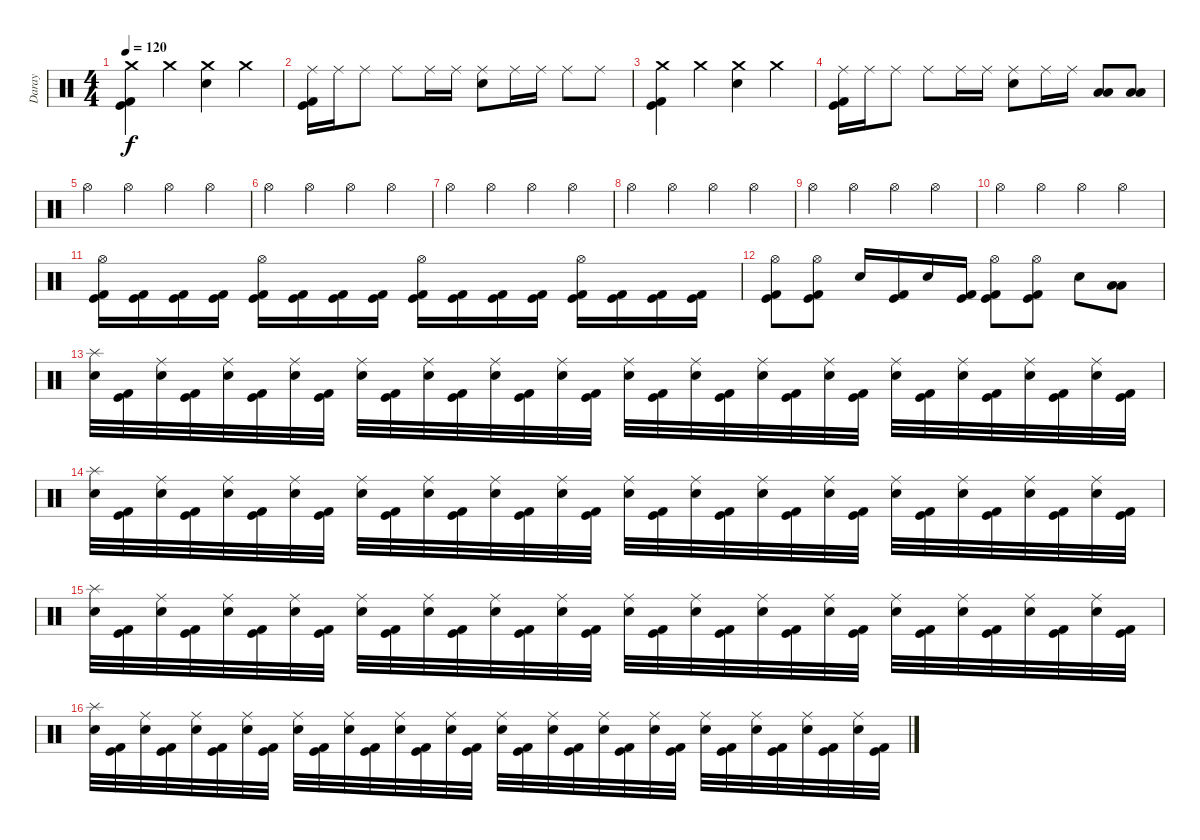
\track ("Daray" "Daray") {instrument percussion}
\staff {score}
\articulation defaults
\ts (4 4)
\tempo 120
\clef neutral
\ks c
("Crash medium (hit)" "Kick (hit) 2" "Kick (hit)").4{dy f} "Crash medium (hit)".4 ("Crash medium (hit)" "Snare (hit) 2").4 "Crash medium (hit)".4 |
("Ride (middle)" "Kick (hit) 2" "Kick (hit)").16 "Ride (middle)".16 "Ride (middle)".8 "Ride (middle)".8 "Ride (middle)".16 "Ride (middle)".16 ("Ride (middle)" "Snare (hit) 2").8 "Ride (middle)".16 "Ride (middle)".16 "Ride (middle)".8 "Ride (middle)".8 |
("Crash medium (hit)" "Kick (hit) 2" "Kick (hit)").4 "Crash medium (hit)".4 ("Crash medium (hit)" "Snare (hit) 2").4 "Crash medium (hit)".4 |
("Ride (middle)" "Kick (hit) 2" "Kick (hit)").16 "Ride (middle)".16 "Ride (middle)".8 "Ride (middle)".8 "Ride (middle)".16 "Ride (middle)".16 ("Ride (middle)" "Snare (hit) 2").8 "Ride (middle)".16 "Ride (middle)".16 ("Low Floor Tom (hit)" "Low Tom (hit)").8 ("Low Floor Tom (hit)" "Low Tom (hit)").8 |
"Hi-Hat (open)".4 "Hi-Hat (open)".4 "Hi-Hat (open)".4 "Hi-Hat (open)".4 |
"Hi-Hat (open)".4 "Hi-Hat (open)".4 "Hi-Hat (open)".4 "Hi-Hat (open)".4 |
"Hi-Hat (open)".4 "Hi-Hat (open)".4 "Hi-Hat (open)".4 "Hi-Hat (open)".4 |
"Hi-Hat (open)".4 "Hi-Hat (open)".4 "Hi-Hat (open)".4 "Hi-Hat (open)".4 |
"Hi-Hat (open)".4 "Hi-Hat (open)".4 "Hi-Hat (open)".4 "Hi-Hat (open)".4 |
"Hi-Hat (open)".4 "Hi-Hat (open)".4 "Hi-Hat (open)".4 "Hi-Hat (open)".4 |
("Hi-Hat (open)" "Kick (hit) 2" "Kick (hit)").16 ("Kick (hit) 2" "Kick (hit)").16 ("Kick (hit) 2" "Kick (hit)").16 ("Kick (hit) 2" "Kick (hit)").16 ("Hi-Hat (open)" "Kick (hit) 2" "Kick (hit)").16 ("Kick (hit) 2" "Kick (hit)").16 ("Kick (hit) 2" "Kick (hit)").16 ("Kick (hit) 2" "Kick (hit)").16 ("Hi-Hat (open)" "Kick (hit) 2" "Kick (hit)").16 ("Kick (hit) 2" "Kick (hit)").16 ("Kick (hit) 2" "Kick (hit)").16 ("Kick (hit) 2" "Kick (hit)").16 ("Hi-Hat (open)" "Kick (hit) 2" "Kick (hit)").16 ("Kick (hit) 2" "Kick (hit)").16 ("Kick (hit) 2" "Kick (hit)").16 ("Kick (hit) 2" "Kick (hit)").16 |
("Hi-Hat (open)" "Kick (hit) 2" "Kick (hit)").8 ("Hi-Hat (open)" "Kick (hit) 2" "Kick (hit)").8 "Snare (hit) 2".16 ("Kick (hit) 2" "Kick (hit)").16 "Snare (hit) 2".16 ("Kick (hit) 2" "Kick (hit)").16 ("Hi-Hat (open)" "Kick (hit) 2" "Kick (hit)").8 ("Hi-Hat (open)" "Kick (hit) 2" "Kick (hit)").8 "Snare (hit) 2".8 ("Low Tom (hit)" "Low Floor Tom (hit)").8 |
("Splash (hit)" "Snare (hit) 2").32 ("Kick (hit) 2" "Kick (hit)").32 ("Ride (middle)" "Snare (hit) 2").32 ("Kick (hit) 2" "Kick (hit)").32 ("Ride (middle)" "Snare (hit) 2").32 ("Kick (hit) 2" "Kick (hit)").32 ("Ride (middle)" "Snare (hit) 2").32 ("Kick (hit) 2" "Kick (hit)").32 ("Ride (middle)" "Snare (hit) 2").32 ("Kick (hit) 2" "Kick (hit)").32 ("Ride (middle)" "Snare (hit) 2").32 ("Kick (hit) 2" "Kick (hit)").32 ("Ride (middle)" "Snare (hit) 2").32 ("Kick (hit) 2" "Kick (hit)").32 ("Ride (middle)" "Snare (hit) 2").32 ("Kick (hit) 2" "Kick (hit)").32 ("Ride (middle)" "Snare (hit) 2").32 ("Kick (hit) 2" "Kick (hit)").32 ("Ride (middle)" "Snare (hit) 2").32 ("Kick (hit) 2" "Kick (hit)").32 ("Ride (middle)" "Snare (hit) 2").32 ("Kick (hit) 2" "Kick (hit)").32 ("Ride (middle)" "Snare (hit) 2").32 ("Kick (hit) 2" "Kick (hit)").32 ("Ride (middle)" "Snare (hit) 2").32 ("Kick (hit) 2" "Kick (hit)").32 ("Ride (middle)" "Snare (hit) 2").32 ("Kick (hit) 2" "Kick (hit)").32 ("Ride (middle)" "Snare (hit) 2").32 ("Kick (hit) 2" "Kick (hit)").32 ("Ride (middle)" "Snare (hit) 2").32 ("Kick (hit) 2" "Kick (hit)").32 |
("Splash (hit)" "Snare (hit) 2").32 ("Kick (hit) 2" "Kick (hit)").32 ("Ride (middle)" "Snare (hit) 2").32 ("Kick (hit) 2" "Kick (hit)").32 ("Ride (middle)" "Snare (hit) 2").32 ("Kick (hit) 2" "Kick (hit)").32 ("Ride (middle)" "Snare (hit) 2").32 ("Kick (hit) 2" "Kick (hit)").32 ("Ride (middle)" "Snare (hit) 2").32 ("Kick (hit) 2" "Kick (hit)").32 ("Ride (middle)" "Snare (hit) 2").32 ("Kick (hit) 2" "Kick (hit)").32 ("Ride (middle)" "Snare (hit) 2").32 ("Kick (hit) 2" "Kick (hit)").32 ("Ride (middle)" "Snare (hit) 2").32 ("Kick (hit) 2" "Kick (hit)").32 ("Ride (middle)" "Snare (hit) 2").32 ("Kick (hit) 2" "Kick (hit)").32 ("Ride (middle)" "Snare (hit) 2").32 ("Kick (hit) 2" "Kick (hit)").32 ("Ride (middle)" "Snare (hit) 2").32 ("Kick (hit) 2" "Kick (hit)").32 ("Ride (middle)" "Snare (hit) 2").32 ("Kick (hit) 2" "Kick (hit)").32 ("Ride (middle)" "Snare (hit) 2").32 ("Kick (hit) 2" "Kick (hit)").32 ("Ride (middle)" "Snare (hit) 2").32 ("Kick (hit) 2" "Kick (hit)").32 ("Ride (middle)" "Snare (hit) 2").32 ("Kick (hit) 2" "Kick (hit)").32 ("Ride (middle)" "Snare (hit) 2").32 ("Kick (hit) 2" "Kick (hit)").32 |
("Splash (hit)" "Snare (hit) 2").32 ("Kick (hit) 2" "Kick (hit)").32 ("Ride (middle)" "Snare (hit) 2").32 ("Kick (hit) 2" "Kick (hit)").32 ("Ride (middle)" "Snare (hit) 2").32 ("Kick (hit) 2" "Kick (hit)").32 ("Ride (middle)" "Snare (hit) 2").32 ("Kick (hit) 2" "Kick (hit)").32 ("Ride (middle)" "Snare (hit) 2").32 ("Kick (hit) 2" "Kick (hit)").32 ("Ride (middle)" "Snare (hit) 2").32 ("Kick (hit) 2" "Kick (hit)").32 ("Ride (middle)" "Snare (hit) 2").32 ("Kick (hit) 2" "Kick (hit)").32 ("Ride (middle)" "Snare (hit) 2").32 ("Kick (hit) 2" "Kick (hit)").32 ("Ride (middle)" "Snare (hit) 2").32 ("Kick (hit) 2" "Kick (hit)").32 ("Ride (middle)" "Snare (hit) 2").32 ("Kick (hit) 2" "Kick (hit)").32 ("Ride (middle)" "Snare (hit) 2").32 ("Kick (hit) 2" "Kick (hit)").32 ("Ride (middle)" "Snare (hit) 2").32 ("Kick (hit) 2" "Kick (hit)").32 ("Ride (middle)" "Snare (hit) 2").32 ("Kick (hit) 2" "Kick (hit)").32 ("Ride (middle)" "Snare (hit) 2").32 ("Kick (hit) 2" "Kick (hit)").32 ("Ride (middle)" "Snare (hit) 2").32 ("Kick (hit) 2" "Kick (hit)").32 ("Ride (middle)" "Snare (hit) 2").32 ("Kick (hit) 2" "Kick (hit)").32 |
("Splash (hit)" "Snare (hit) 2").32 ("Kick (hit) 2" "Kick (hit)").32 ("Ride (middle)" "Snare (hit) 2").32 ("Kick (hit) 2" "Kick (hit)").32 ("Ride (middle)" "Snare (hit) 2").32 ("Kick (hit) 2" "Kick (hit)").32 ("Ride (middle)" "Snare (hit) 2").32 ("Kick (hit) 2" "Kick (hit)").32 ("Ride (middle)" "Snare (hit) 2").32 ("Kick (hit) 2" "Kick (hit)").32 ("Ride (middle)" "Snare (hit) 2").32 ("Kick (hit) 2" "Kick (hit)").32 ("Ride (middle)" "Snare (hit) 2").32 ("Kick (hit) 2" "Kick (hit)").32 ("Ride (middle)" "Snare (hit) 2").32 ("Kick (hit) 2" "Kick (hit)").32 ("Ride (middle)" "Snare (hit) 2").32 ("Kick (hit) 2" "Kick (hit)").32 ("Ride (middle)" "Snare (hit) 2").32 ("Kick (hit) 2" "Kick (hit)").32 ("Ride (middle)" "Snare (hit) 2").32 ("Kick (hit) 2" "Kick (hit)").32 ("Ride (middle)" "Snare (hit) 2").32 ("Kick (hit) 2" "Kick (hit)").32 ("Ride (middle)" "Snare (hit) 2").32 ("Kick (hit) 2" "Kick (hit)").32 ("Ride (middle)" "Snare (hit) 2").32 ("Kick (hit) 2" "Kick (hit)").32 ("Ride (middle)" "Snare (hit) 2").32 ("Kick (hit) 2" "Kick (hit)").32 ("Ride (middle)" "Snare (hit) 2").32 ("Kick (hit) 2" "Kick (hit)").32
